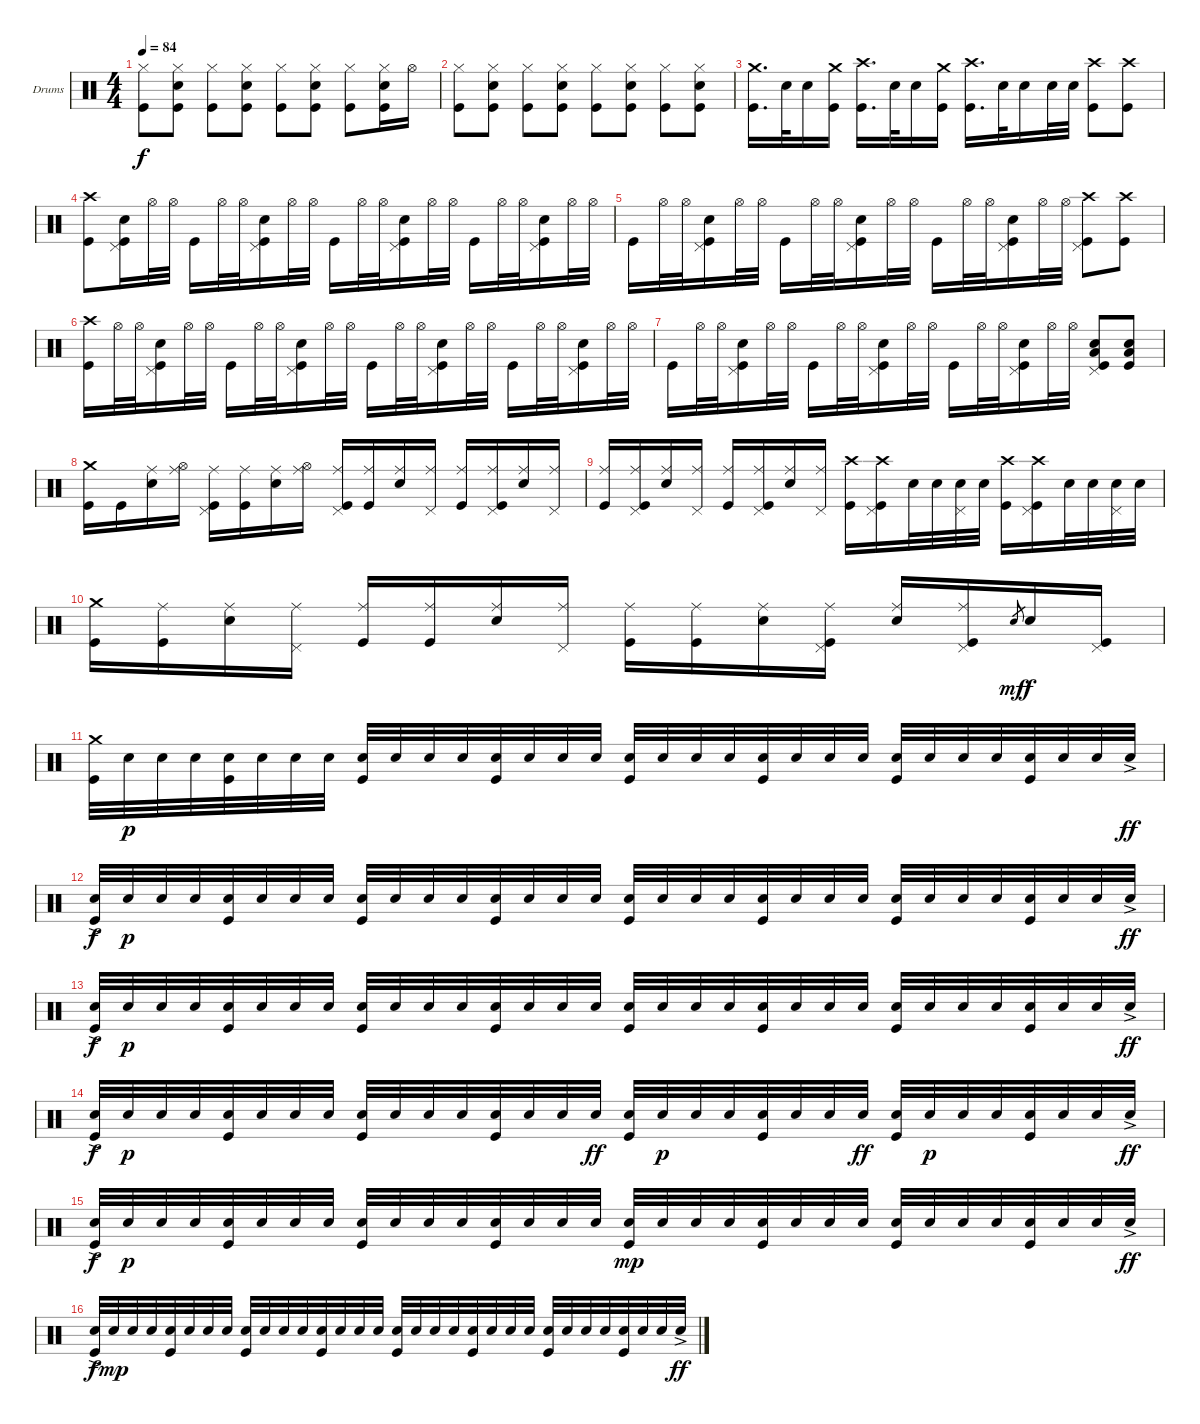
\bracketExtendMode groupsimilarinstruments
\firstSystemTrackNameOrientation horizontal
\otherSystemsTrackNameOrientation horizontal
\track ("Drumkit" "Drums") {solo instrument percussion}
\staff {score}
\articulation defaults
\ts (4 4)
\tempo 84
\clef neutral
\ks c
("Hi-Hat (closed)" "Kick (hit)").8{dy f} ("Hi-Hat (closed)" "Snare (hit) 2" "Kick (hit)").8 ("Hi-Hat (closed)" "Kick (hit)").8 ("Hi-Hat (closed)" "Snare (hit) 2" "Kick (hit)").8 ("Hi-Hat (closed)" "Kick (hit)").8 ("Hi-Hat (closed)" "Snare (hit) 2" "Kick (hit)").8 ("Hi-Hat (closed)" "Kick (hit)").8 ("Hi-Hat (closed)" "Snare (hit) 2" "Kick (hit)").16 "Hi-Hat (open)".16 |
("Hi-Hat (closed)" "Kick (hit)").8 ("Hi-Hat (closed)" "Snare (hit) 2" "Kick (hit)").8 ("Hi-Hat (closed)" "Kick (hit)").8 ("Hi-Hat (closed)" "Snare (hit) 2" "Kick (hit)").8 ("Hi-Hat (closed)" "Kick (hit)").8 ("Hi-Hat (closed)" "Snare (hit) 2" "Kick (hit)").8 ("Hi-Hat (closed)" "Kick (hit)").8 ("Hi-Hat (closed)" "Snare (hit) 2" "Kick (hit)").8 |
("Crash medium (hit)" "Kick (hit)").16{d} "Snare (hit) 2".32 "Snare (hit) 2".16 ("Crash medium (hit)" "Kick (hit)").16 ("Crash high (hit)" "Kick (hit)").16{d} "Snare (hit) 2".32 "Snare (hit) 2".16 ("Crash medium (hit)" "Kick (hit)").16 ("Crash high (hit)" "Kick (hit)").16{d} "Snare (hit) 2".32 "Snare (hit) 2".16 "Snare (hit) 2".32 "Snare (hit) 2".32 ("Crash high (hit)" "Kick (hit)").8 ("Crash high (hit)" "Kick (hit)").8 |
("Crash high (hit)" "Kick (hit)").8 ("Pedal Hi-Hat (hit)" "Snare (hit) 2" "Kick (hit)").16 "Hi-Hat (open)".32 "Hi-Hat (open)".32 "Kick (hit)".16 "Hi-Hat (open)".32 "Hi-Hat (open)".32 ("Pedal Hi-Hat (hit)" "Snare (hit) 2" "Kick (hit)").16 "Hi-Hat (open)".32 "Hi-Hat (open)".32 "Kick (hit)".16 "Hi-Hat (open)".32 "Hi-Hat (open)".32 ("Pedal Hi-Hat (hit)" "Snare (hit) 2" "Kick (hit)").16 "Hi-Hat (open)".32 "Hi-Hat (open)".32 "Kick (hit)".16 "Hi-Hat (open)".32 "Hi-Hat (open)".32 ("Pedal Hi-Hat (hit)" "Snare (hit) 2" "Kick (hit)").16 "Hi-Hat (open)".32 "Hi-Hat (open)".32 |
"Kick (hit)".16 "Hi-Hat (open)".32 "Hi-Hat (open)".32 ("Pedal Hi-Hat (hit)" "Snare (hit) 2" "Kick (hit)").16 "Hi-Hat (open)".32 "Hi-Hat (open)".32 "Kick (hit)".16 "Hi-Hat (open)".32 "Hi-Hat (open)".32 ("Pedal Hi-Hat (hit)" "Snare (hit) 2" "Kick (hit)").16 "Hi-Hat (open)".32 "Hi-Hat (open)".32 "Kick (hit)".16 "Hi-Hat (open)".32 "Hi-Hat (open)".32 ("Pedal Hi-Hat (hit)" "Snare (hit) 2" "Kick (hit)").16 "Hi-Hat (open)".32 "Hi-Hat (open)".32 ("Crash high (hit)" "Pedal Hi-Hat (hit)" "Kick (hit)").8 ("Crash high (hit)" "Kick (hit)").8 |
("Crash high (hit)" "Kick (hit)").16 "Hi-Hat (open)".32 "Hi-Hat (open)".32 ("Pedal Hi-Hat (hit)" "Snare (hit) 2" "Kick (hit)").16 "Hi-Hat (open)".32 "Hi-Hat (open)".32 "Kick (hit)".16 "Hi-Hat (open)".32 "Hi-Hat (open)".32 ("Pedal Hi-Hat (hit)" "Snare (hit) 2" "Kick (hit)").16 "Hi-Hat (open)".32 "Hi-Hat (open)".32 "Kick (hit)".16 "Hi-Hat (open)".32 "Hi-Hat (open)".32 ("Pedal Hi-Hat (hit)" "Snare (hit) 2" "Kick (hit)").16 "Hi-Hat (open)".32 "Hi-Hat (open)".32 "Kick (hit)".16 "Hi-Hat (open)".32 "Hi-Hat (open)".32 ("Pedal Hi-Hat (hit)" "Snare (hit) 2" "Kick (hit)").16 "Hi-Hat (open)".32 "Hi-Hat (open)".32 |
"Kick (hit)".16 "Hi-Hat (open)".32 "Hi-Hat (open)".32 ("Pedal Hi-Hat (hit)" "Snare (hit) 2" "Kick (hit)").16 "Hi-Hat (open)".32 "Hi-Hat (open)".32 "Kick (hit)".16 "Hi-Hat (open)".32 "Hi-Hat (open)".32 ("Pedal Hi-Hat (hit)" "Snare (hit) 2" "Kick (hit)").16 "Hi-Hat (open)".32 "Hi-Hat (open)".32 "Kick (hit)".16 "Hi-Hat (open)".32 "Hi-Hat (open)".32 ("Pedal Hi-Hat (hit)" "Snare (hit) 2" "Kick (hit)").16 "Hi-Hat (open)".32 "Hi-Hat (open)".32 ("Pedal Hi-Hat (hit)" "Snare (hit) 2" "Low Tom (hit)" "Kick (hit)").8 ("Snare (hit) 2" "Low Tom (hit)" "Kick (hit)").8 |
("Crash medium (hit)" "Kick (hit)").16 "Kick (hit)".16 ("Ride (middle)" "Snare (hit) 2").16 ("Ride (middle)" "Hi-Hat (open)").16 ("Ride (middle)" "Pedal Hi-Hat (hit)" "Kick (hit)").16 ("Ride (middle)" "Kick (hit)").16 ("Ride (middle)" "Snare (hit) 2").16 ("Ride (middle)" "Hi-Hat (open)").16 ("Ride (middle)" "Pedal Hi-Hat (hit)" "Kick (hit)").16 ("Ride (middle)" "Kick (hit)").16 ("Ride (middle)" "Snare (hit) 2").16 ("Ride (middle)" "Pedal Hi-Hat (hit)").16 ("Ride (middle)" "Kick (hit)").16 ("Ride (middle)" "Pedal Hi-Hat (hit)" "Kick (hit)").16 ("Ride (middle)" "Snare (hit) 2").16 ("Ride (middle)" "Pedal Hi-Hat (hit)").16 |
("Ride (middle)" "Kick (hit)").16 ("Ride (middle)" "Pedal Hi-Hat (hit)" "Kick (hit)").16 ("Ride (middle)" "Snare (hit) 2").16 ("Ride (middle)" "Pedal Hi-Hat (hit)").16 ("Ride (middle)" "Kick (hit)").16 ("Ride (middle)" "Pedal Hi-Hat (hit)" "Kick (hit)").16 ("Ride (middle)" "Snare (hit) 2").16 ("Ride (middle)" "Pedal Hi-Hat (hit)").16 ("Crash high (hit)" "Kick (hit)").16 ("Crash high (hit)" "Pedal Hi-Hat (hit)" "Kick (hit)").16 "Snare (hit) 2".32 "Snare (hit) 2".32 ("Pedal Hi-Hat (hit)" "Snare (hit) 2").32 "Snare (hit) 2".32 ("Crash high (hit)" "Kick (hit)").16 ("Crash high (hit)" "Pedal Hi-Hat (hit)" "Kick (hit)").16 "Snare (hit) 2".32 "Snare (hit) 2".32 ("Pedal Hi-Hat (hit)" "Snare (hit) 2").32 "Snare (hit) 2".32 |
("Crash medium (hit)" "Kick (hit)").16 ("Ride (middle)" "Kick (hit)").16 ("Ride (middle)" "Snare (hit) 2").16 ("Ride (middle)" "Pedal Hi-Hat (hit)").16 ("Ride (middle)" "Kick (hit)").16 ("Ride (middle)" "Kick (hit)").16 ("Ride (middle)" "Snare (hit) 2").16 ("Ride (middle)" "Pedal Hi-Hat (hit)").16 ("Ride (middle)" "Kick (hit)").16 ("Ride (middle)" "Kick (hit)").16 ("Ride (middle)" "Snare (hit) 2").16 ("Ride (middle)" "Pedal Hi-Hat (hit)" "Kick (hit)").16 ("Ride (middle)" "Snare (hit) 2").16 ("Ride (middle)" "Pedal Hi-Hat (hit)" "Kick (hit)").16 "Snare (hit) 2".8{gr dy mf} "Snare (hit) 2".16{dy f} ("Pedal Hi-Hat (hit)" "Kick (hit)").16 |
("Crash medium (hit)" "Kick (hit)").32 "Snare (hit) 2".32{dy p} "Snare (hit) 2".32 "Snare (hit) 2".32 ("Snare (hit) 2" "Kick (hit)").32 "Snare (hit) 2".32 "Snare (hit) 2".32 "Snare (hit) 2".32 ("Snare (hit) 2" "Kick (hit)").32 "Snare (hit) 2".32 "Snare (hit) 2".32 "Snare (hit) 2".32 ("Snare (hit) 2" "Kick (hit)").32 "Snare (hit) 2".32 "Snare (hit) 2".32 "Snare (hit) 2".32 ("Snare (hit) 2" "Kick (hit)").32 "Snare (hit) 2".32 "Snare (hit) 2".32 "Snare (hit) 2".32 ("Snare (hit) 2" "Kick (hit)").32 "Snare (hit) 2".32 "Snare (hit) 2".32 "Snare (hit) 2".32 ("Snare (hit) 2" "Kick (hit)").32 "Snare (hit) 2".32 "Snare (hit) 2".32 "Snare (hit) 2".32 ("Snare (hit) 2" "Kick (hit)").32 "Snare (hit) 2".32 "Snare (hit) 2".32 "Snare (hit) 2"{ac}.32{dy ff} |
("Snare (hit) 2"{ac} "Kick (hit)").32{dy f} "Snare (hit) 2".32{dy p} "Snare (hit) 2".32 "Snare (hit) 2".32 ("Snare (hit) 2" "Kick (hit)").32 "Snare (hit) 2".32 "Snare (hit) 2".32 "Snare (hit) 2".32 ("Snare (hit) 2" "Kick (hit)").32 "Snare (hit) 2".32 "Snare (hit) 2".32 "Snare (hit) 2".32 ("Snare (hit) 2" "Kick (hit)").32 "Snare (hit) 2".32 "Snare (hit) 2".32 "Snare (hit) 2".32 ("Snare (hit) 2" "Kick (hit)").32 "Snare (hit) 2".32 "Snare (hit) 2".32 "Snare (hit) 2".32 ("Snare (hit) 2" "Kick (hit)").32 "Snare (hit) 2".32 "Snare (hit) 2".32 "Snare (hit) 2".32 ("Snare (hit) 2" "Kick (hit)").32 "Snare (hit) 2".32 "Snare (hit) 2".32 "Snare (hit) 2".32 ("Snare (hit) 2" "Kick (hit)").32 "Snare (hit) 2".32 "Snare (hit) 2".32 "Snare (hit) 2"{ac}.32{dy ff} |
("Snare (hit) 2"{ac} "Kick (hit)").32{dy f} "Snare (hit) 2".32{dy p} "Snare (hit) 2".32 "Snare (hit) 2".32 ("Snare (hit) 2" "Kick (hit)").32 "Snare (hit) 2".32 "Snare (hit) 2".32 "Snare (hit) 2".32 ("Snare (hit) 2" "Kick (hit)").32 "Snare (hit) 2".32 "Snare (hit) 2".32 "Snare (hit) 2".32 ("Snare (hit) 2" "Kick (hit)").32 "Snare (hit) 2".32 "Snare (hit) 2".32 "Snare (hit) 2".32 ("Snare (hit) 2" "Kick (hit)").32 "Snare (hit) 2".32 "Snare (hit) 2".32 "Snare (hit) 2".32 ("Snare (hit) 2" "Kick (hit)").32 "Snare (hit) 2".32 "Snare (hit) 2".32 "Snare (hit) 2".32 ("Snare (hit) 2" "Kick (hit)").32 "Snare (hit) 2".32 "Snare (hit) 2".32 "Snare (hit) 2".32 ("Snare (hit) 2" "Kick (hit)").32 "Snare (hit) 2".32 "Snare (hit) 2".32 "Snare (hit) 2"{ac}.32{dy ff} |
("Snare (hit) 2"{ac} "Kick (hit)").32{dy f} "Snare (hit) 2".32{dy p} "Snare (hit) 2".32 "Snare (hit) 2".32 ("Snare (hit) 2" "Kick (hit)").32 "Snare (hit) 2".32 "Snare (hit) 2".32 "Snare (hit) 2".32 ("Snare (hit) 2" "Kick (hit)").32 "Snare (hit) 2".32 "Snare (hit) 2".32 "Snare (hit) 2".32 ("Snare (hit) 2" "Kick (hit)").32 "Snare (hit) 2".32 "Snare (hit) 2".32 "Snare (hit) 2".32{dy ff} ("Snare (hit) 2" "Kick (hit)").32 "Snare (hit) 2".32{dy p} "Snare (hit) 2".32 "Snare (hit) 2".32 ("Snare (hit) 2" "Kick (hit)").32 "Snare (hit) 2".32 "Snare (hit) 2".32 "Snare (hit) 2".32{dy ff} ("Snare (hit) 2" "Kick (hit)").32 "Snare (hit) 2".32{dy p} "Snare (hit) 2".32 "Snare (hit) 2".32 ("Snare (hit) 2" "Kick (hit)").32 "Snare (hit) 2".32 "Snare (hit) 2".32 "Snare (hit) 2"{ac}.32{dy ff} |
("Snare (hit) 2"{ac} "Kick (hit)").32{dy f} "Snare (hit) 2".32{dy p} "Snare (hit) 2".32 "Snare (hit) 2".32 ("Snare (hit) 2" "Kick (hit)").32 "Snare (hit) 2".32 "Snare (hit) 2".32 "Snare (hit) 2".32 ("Snare (hit) 2" "Kick (hit)").32 "Snare (hit) 2".32 "Snare (hit) 2".32 "Snare (hit) 2".32 ("Snare (hit) 2" "Kick (hit)").32 "Snare (hit) 2".32 "Snare (hit) 2".32 "Snare (hit) 2".32 ("Snare (hit) 2" "Kick (hit)").32{dy mp} "Snare (hit) 2".32 "Snare (hit) 2".32 "Snare (hit) 2".32 ("Snare (hit) 2" "Kick (hit)").32 "Snare (hit) 2".32 "Snare (hit) 2".32 "Snare (hit) 2".32 ("Snare (hit) 2" "Kick (hit)").32 "Snare (hit) 2".32 "Snare (hit) 2".32 "Snare (hit) 2".32 ("Snare (hit) 2" "Kick (hit)").32 "Snare (hit) 2".32 "Snare (hit) 2".32 "Snare (hit) 2"{ac}.32{dy ff} |
("Snare (hit) 2"{ac} "Kick (hit)").32{dy f} "Snare (hit) 2".32{dy mp} "Snare (hit) 2".32 "Snare (hit) 2".32 ("Snare (hit) 2" "Kick (hit)").32 "Snare (hit) 2".32 "Snare (hit) 2".32 "Snare (hit) 2".32 ("Snare (hit) 2" "Kick (hit)").32 "Snare (hit) 2".32 "Snare (hit) 2".32 "Snare (hit) 2".32 ("Snare (hit) 2" "Kick (hit)").32 "Snare (hit) 2".32 "Snare (hit) 2".32 "Snare (hit) 2".32 ("Snare (hit) 2" "Kick (hit)").32 "Snare (hit) 2".32 "Snare (hit) 2".32 "Snare (hit) 2".32 ("Snare (hit) 2" "Kick (hit)").32 "Snare (hit) 2".32 "Snare (hit) 2".32 "Snare (hit) 2".32 ("Snare (hit) 2" "Kick (hit)").32 "Snare (hit) 2".32 "Snare (hit) 2".32 "Snare (hit) 2".32 ("Snare (hit) 2" "Kick (hit)").32 "Snare (hit) 2".32 "Snare (hit) 2".32 "Snare (hit) 2"{ac}.32{dy ff}
